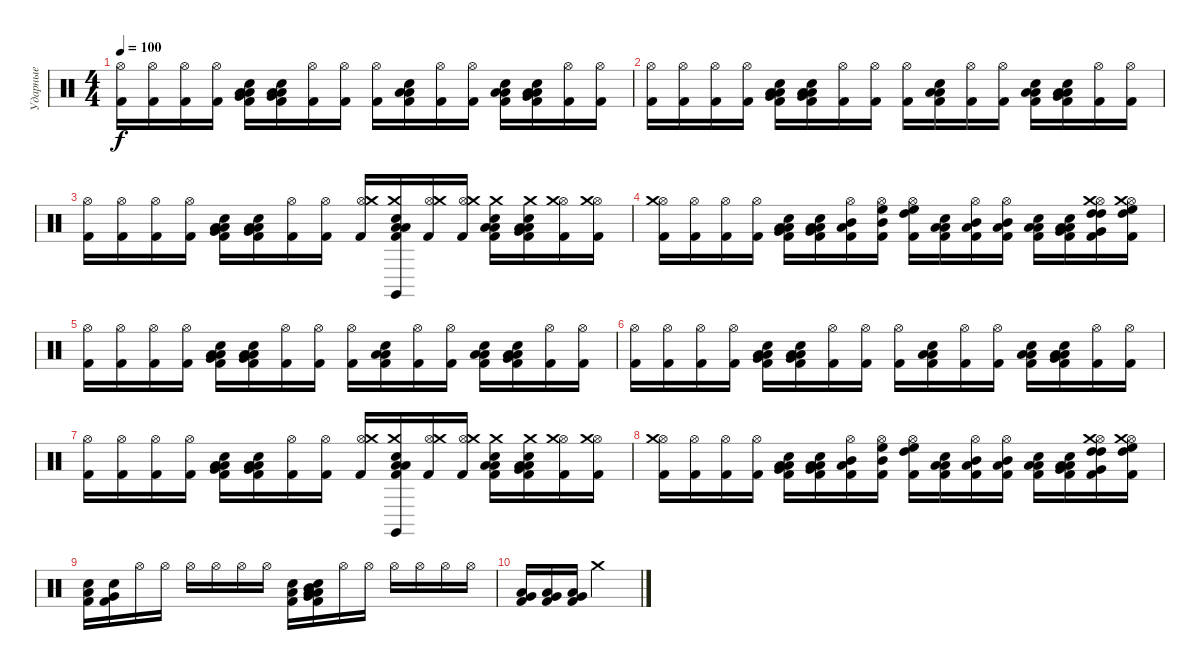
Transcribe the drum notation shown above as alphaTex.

\track ("Ударные" "Ударные") {instrument percussion}
\staff {score}
\articulation defaults
\ts (4 4)
\tempo 100
\clef neutral
\ks c
("Hi-Hat (open)" "Kick (hit) 2").16{dy f} ("Hi-Hat (open)" "Kick (hit) 2").16 ("Hi-Hat (open)" "Kick (hit) 2").16 ("Hi-Hat (open)" "Kick (hit) 2").16 ("Low Floor Tom (hit)" "Very Low Tom (hit)" "Kick (hit) 2" "Low Tom (hit)" "Snare (hit) 2").16 ("Low Floor Tom (hit)" "Very Low Tom (hit)" "Kick (hit) 2" "Low Tom (hit)" "Snare (hit) 2").16 ("Hi-Hat (open)" "Kick (hit) 2").16 ("Hi-Hat (open)" "Kick (hit) 2").16 ("Hi-Hat (open)" "Kick (hit) 2").16 ("Low Floor Tom (hit)" "Low Tom (hit)" "Kick (hit) 2" "Snare (hit) 2").16 ("Hi-Hat (open)" "Kick (hit) 2").16 ("Hi-Hat (open)" "Kick (hit) 2").16 ("Low Floor Tom (hit)" "Low Tom (hit)" "Kick (hit) 2" "Snare (hit) 2").16 ("Low Floor Tom (hit)" "Very Low Tom (hit)" "Kick (hit) 2" "Low Tom (hit)" "Snare (hit) 2").16 ("Hi-Hat (open)" "Kick (hit) 2").16 ("Hi-Hat (open)" "Kick (hit) 2").16 |
("Hi-Hat (open)" "Kick (hit) 2").16 ("Hi-Hat (open)" "Kick (hit) 2").16 ("Hi-Hat (open)" "Kick (hit) 2").16 ("Hi-Hat (open)" "Kick (hit) 2").16 ("Low Floor Tom (hit)" "Very Low Tom (hit)" "Kick (hit) 2" "Low Tom (hit)" "Snare (hit) 2").16 ("Low Floor Tom (hit)" "Very Low Tom (hit)" "Kick (hit) 2" "Low Tom (hit)" "Snare (hit) 2").16 ("Hi-Hat (open)" "Kick (hit) 2").16 ("Hi-Hat (open)" "Kick (hit) 2").16 ("Hi-Hat (open)" "Kick (hit) 2").16 ("Low Floor Tom (hit)" "Low Tom (hit)" "Kick (hit) 2" "Snare (hit) 2").16 ("Hi-Hat (open)" "Kick (hit) 2").16 ("Hi-Hat (open)" "Kick (hit) 2").16 ("Low Floor Tom (hit)" "Low Tom (hit)" "Kick (hit) 2" "Snare (hit) 2").16 ("Low Floor Tom (hit)" "Very Low Tom (hit)" "Kick (hit) 2" "Low Tom (hit)" "Snare (hit) 2").16 ("Hi-Hat (open)" "Kick (hit) 2").16 ("Hi-Hat (open)" "Kick (hit) 2").16 |
("Hi-Hat (open)" "Kick (hit) 2").16 ("Hi-Hat (open)" "Kick (hit) 2").16 ("Hi-Hat (open)" "Kick (hit) 2").16 ("Hi-Hat (open)" "Kick (hit) 2").16 ("Low Floor Tom (hit)" "Very Low Tom (hit)" "Kick (hit) 2" "Low Tom (hit)" "Snare (hit) 2").16 ("Low Floor Tom (hit)" "Very Low Tom (hit)" "Kick (hit) 2" "Low Tom (hit)" "Snare (hit) 2").16 ("Hi-Hat (open)" "Kick (hit) 2").16 ("Hi-Hat (open)" "Kick (hit) 2").16 ("Hi-Hat (open)" "Crash medium (hit)" "Kick (hit) 2").16 ("Low Floor Tom (hit)" "Low Tom (hit)" "Kick (hit) 2" "Snare (hit) 2" "Crash medium (hit)" "Claves (hit)").16 ("Hi-Hat (open)" "Crash medium (hit)" "Kick (hit) 2").16 ("Hi-Hat (open)" "Crash medium (hit)" "Kick (hit) 2").16 ("Low Floor Tom (hit)" "Low Tom (hit)" "Kick (hit) 2" "Snare (hit) 2" "Crash medium (hit)").16 ("Low Floor Tom (hit)" "Very Low Tom (hit)" "Kick (hit) 2" "Low Tom (hit)" "Snare (hit) 2" "Crash medium (hit)").16 ("Hi-Hat (open)" "Crash medium (hit)" "Kick (hit) 2").16 ("Hi-Hat (open)" "Crash medium (hit)" "Kick (hit) 2").16 |
("Hi-Hat (open)" "Crash medium (hit)" "Kick (hit) 2").16 ("Hi-Hat (open)" "Kick (hit) 2").16 ("Hi-Hat (open)" "Kick (hit) 2").16 ("Hi-Hat (open)" "Kick (hit) 2").16 ("Low Floor Tom (hit)" "Very Low Tom (hit)" "Kick (hit) 2" "Low Tom (hit)" "Snare (hit) 2").16 ("Low Floor Tom (hit)" "Very Low Tom (hit)" "Kick (hit) 2" "Low Tom (hit)" "Snare (hit) 2").16 ("Hi-Hat (open)" "Low Tom (hit)" "Kick (hit) 2" "Mid Tom (hit)").16 ("Hi-Hat (open)" "Mid Tom (hit)" "Kick (hit) 2" "High Floor Tom (hit)").16 ("Hi-Hat (open)" "High Tom (hit)" "Kick (hit) 2" "High Floor Tom (hit)").16 ("Low Floor Tom (hit)" "Low Tom (hit)" "Kick (hit) 2" "Snare (hit) 2").16 ("Hi-Hat (open)" "Low Tom (hit)" "Kick (hit) 2" "Mid Tom (hit)").16 ("Hi-Hat (open)" "Low Tom (hit)" "Kick (hit) 2" "Mid Tom (hit)").16 ("Low Floor Tom (hit)" "Low Tom (hit)" "Kick (hit) 2" "Snare (hit) 2").16 ("Low Floor Tom (hit)" "Very Low Tom (hit)" "Kick (hit) 2" "Low Tom (hit)" "Snare (hit) 2").16 ("Hi-Hat (open)" "High Tom (hit)" "Kick (hit) 2" "High Tom (hit)" "Very Low Tom (hit)" "Crash medium (hit)").16 ("Hi-Hat (open)" "High Floor Tom (hit)" "Kick (hit) 2" "High Tom (hit)" "Crash medium (hit)").16 |
("Hi-Hat (open)" "Kick (hit) 2").16 ("Hi-Hat (open)" "Kick (hit) 2").16 ("Hi-Hat (open)" "Kick (hit) 2").16 ("Hi-Hat (open)" "Kick (hit) 2").16 ("Low Floor Tom (hit)" "Very Low Tom (hit)" "Kick (hit) 2" "Low Tom (hit)" "Snare (hit) 2").16 ("Low Floor Tom (hit)" "Very Low Tom (hit)" "Kick (hit) 2" "Low Tom (hit)" "Snare (hit) 2").16 ("Hi-Hat (open)" "Kick (hit) 2").16 ("Hi-Hat (open)" "Kick (hit) 2").16 ("Hi-Hat (open)" "Kick (hit) 2").16 ("Low Floor Tom (hit)" "Low Tom (hit)" "Kick (hit) 2" "Snare (hit) 2").16 ("Hi-Hat (open)" "Kick (hit) 2").16 ("Hi-Hat (open)" "Kick (hit) 2").16 ("Low Floor Tom (hit)" "Low Tom (hit)" "Kick (hit) 2" "Snare (hit) 2").16 ("Low Floor Tom (hit)" "Very Low Tom (hit)" "Kick (hit) 2" "Low Tom (hit)" "Snare (hit) 2").16 ("Hi-Hat (open)" "Kick (hit) 2").16 ("Hi-Hat (open)" "Kick (hit) 2").16 |
("Hi-Hat (open)" "Kick (hit) 2").16 ("Hi-Hat (open)" "Kick (hit) 2").16 ("Hi-Hat (open)" "Kick (hit) 2").16 ("Hi-Hat (open)" "Kick (hit) 2").16 ("Low Floor Tom (hit)" "Very Low Tom (hit)" "Kick (hit) 2" "Low Tom (hit)" "Snare (hit) 2").16 ("Low Floor Tom (hit)" "Very Low Tom (hit)" "Kick (hit) 2" "Low Tom (hit)" "Snare (hit) 2").16 ("Hi-Hat (open)" "Kick (hit) 2").16 ("Hi-Hat (open)" "Kick (hit) 2").16 ("Hi-Hat (open)" "Kick (hit) 2").16 ("Low Floor Tom (hit)" "Low Tom (hit)" "Kick (hit) 2" "Snare (hit) 2").16 ("Hi-Hat (open)" "Kick (hit) 2").16 ("Hi-Hat (open)" "Kick (hit) 2").16 ("Low Floor Tom (hit)" "Low Tom (hit)" "Kick (hit) 2" "Snare (hit) 2").16 ("Low Floor Tom (hit)" "Very Low Tom (hit)" "Kick (hit) 2" "Low Tom (hit)" "Snare (hit) 2").16 ("Hi-Hat (open)" "Kick (hit) 2").16 ("Hi-Hat (open)" "Kick (hit) 2").16 |
("Hi-Hat (open)" "Kick (hit) 2").16 ("Hi-Hat (open)" "Kick (hit) 2").16 ("Hi-Hat (open)" "Kick (hit) 2").16 ("Hi-Hat (open)" "Kick (hit) 2").16 ("Low Floor Tom (hit)" "Very Low Tom (hit)" "Kick (hit) 2" "Low Tom (hit)" "Snare (hit) 2").16 ("Low Floor Tom (hit)" "Very Low Tom (hit)" "Kick (hit) 2" "Low Tom (hit)" "Snare (hit) 2").16 ("Hi-Hat (open)" "Kick (hit) 2").16 ("Hi-Hat (open)" "Kick (hit) 2").16 ("Hi-Hat (open)" "Crash medium (hit)" "Kick (hit) 2").16 ("Low Floor Tom (hit)" "Low Tom (hit)" "Kick (hit) 2" "Snare (hit) 2" "Crash medium (hit)" "Claves (hit)").16 ("Hi-Hat (open)" "Crash medium (hit)" "Kick (hit) 2").16 ("Hi-Hat (open)" "Crash medium (hit)" "Kick (hit) 2").16 ("Low Floor Tom (hit)" "Low Tom (hit)" "Kick (hit) 2" "Snare (hit) 2" "Crash medium (hit)").16 ("Low Floor Tom (hit)" "Very Low Tom (hit)" "Kick (hit) 2" "Low Tom (hit)" "Snare (hit) 2" "Crash medium (hit)").16 ("Hi-Hat (open)" "Crash medium (hit)" "Kick (hit) 2").16 ("Hi-Hat (open)" "Crash medium (hit)" "Kick (hit) 2").16 |
("Hi-Hat (open)" "Crash medium (hit)" "Kick (hit) 2").16 ("Hi-Hat (open)" "Kick (hit) 2").16 ("Hi-Hat (open)" "Kick (hit) 2").16 ("Hi-Hat (open)" "Kick (hit) 2").16 ("Low Floor Tom (hit)" "Very Low Tom (hit)" "Kick (hit) 2" "Low Tom (hit)" "Snare (hit) 2").16 ("Low Floor Tom (hit)" "Very Low Tom (hit)" "Kick (hit) 2" "Low Tom (hit)" "Snare (hit) 2").16 ("Hi-Hat (open)" "Low Tom (hit)" "Kick (hit) 2" "Mid Tom (hit)").16 ("Hi-Hat (open)" "Mid Tom (hit)" "Kick (hit) 2" "High Floor Tom (hit)").16 ("Hi-Hat (open)" "High Tom (hit)" "Kick (hit) 2" "High Floor Tom (hit)").16 ("Low Floor Tom (hit)" "Low Tom (hit)" "Kick (hit) 2" "Snare (hit) 2").16 ("Hi-Hat (open)" "Low Tom (hit)" "Kick (hit) 2" "Mid Tom (hit)").16 ("Hi-Hat (open)" "Low Tom (hit)" "Kick (hit) 2" "Mid Tom (hit)").16 ("Low Floor Tom (hit)" "Low Tom (hit)" "Kick (hit) 2" "Snare (hit) 2").16 ("Low Floor Tom (hit)" "Very Low Tom (hit)" "Kick (hit) 2" "Low Tom (hit)" "Snare (hit) 2").16 ("Hi-Hat (open)" "High Tom (hit)" "Kick (hit) 2" "High Tom (hit)" "Very Low Tom (hit)" "Crash medium (hit)").16 ("Hi-Hat (open)" "High Floor Tom (hit)" "Kick (hit) 2" "High Tom (hit)" "Crash medium (hit)").16 |
("Snare (hit) 2" "Kick (hit) 2" "Low Tom (hit)").16 ("Snare (hit) 2" "Kick (hit) 2" "Very Low Tom (hit)").16 "Hi-Hat (open)".16 "Hi-Hat (open)".16 "Hi-Hat (open)".16 "Hi-Hat (open)".16 "Hi-Hat (open)".16 "Hi-Hat (open)".16 ("Kick (hit) 2" "Snare (hit) 2" "Low Floor Tom (hit)").16 ("Kick (hit) 2" "Snare (hit) 2" "Low Floor Tom (hit)" "Very Low Tom (hit)" "Mid Tom (hit)" "Low Tom (hit)").16 "Hi-Hat (open)".16 "Hi-Hat (open)".16 "Hi-Hat (open)".16 "Hi-Hat (open)".16 "Hi-Hat (open)".16 "Hi-Hat (open)".16 |
("Kick (hit) 2" "Low Floor Tom (hit)" "Very Low Tom (hit)").16 ("Kick (hit) 2" "Low Floor Tom (hit)" "Very Low Tom (hit)").16 ("Kick (hit) 2" "Low Floor Tom (hit)" "Very Low Tom (hit)").16 "Crash medium (hit)".2
